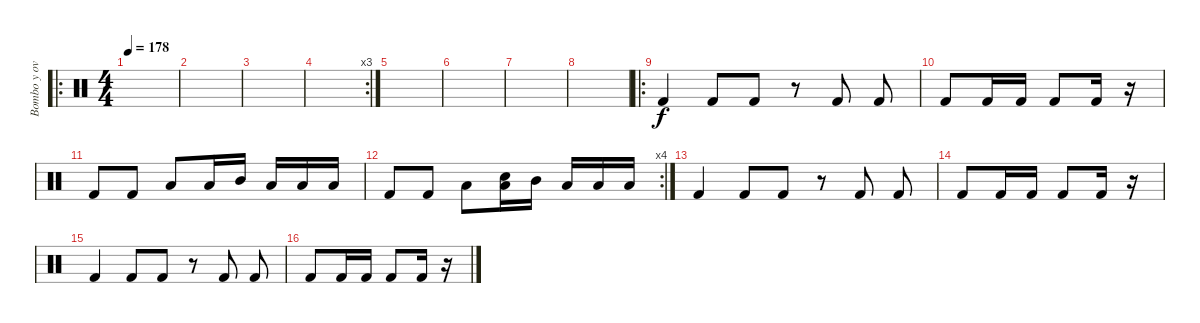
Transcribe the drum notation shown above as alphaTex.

\track ("Bombo y overdubs (bateria)" "Bombo y ov") {instrument percussion}
\staff {score}
\articulation defaults
\ro
\ts (4 4)
\tempo 178
\clef neutral
\ks c
|
|
|
\rc 3
|
|
|
|
|
\ro "Kick (hit) 2".4 "Kick (hit) 2".8 "Kick (hit) 2".8
r.8 "Kick (hit) 2".8 "Kick (hit) 2".8 |
"Kick (hit) 2".8 "Kick (hit) 2".16 "Kick (hit) 2".16 "Kick (hit) 2".8 "Kick (hit) 2".16 r.16 |
"Kick (hit) 2".8 "Kick (hit) 2".8 "Low Tom (hit)".8 "Low Tom (hit)".16 "Mid Tom (hit)".16 "Low Tom (hit)".16 "Low Tom (hit)".16 "Low Tom (hit)".16 |
\rc 4 "Kick (hit) 2".8 "Kick (hit) 2".8 "Low Tom (hit)".8
("Low Tom (hit)" "Snare (hit)").16 "Mid Tom (hit)".16 "Low Tom (hit)".16 "Low Tom (hit)".16 "Low Tom (hit)".16 |
"Kick (hit) 2".4 "Kick (hit) 2".8 "Kick (hit) 2".8 r.8 "Kick (hit) 2".8 "Kick (hit) 2".8 |
"Kick (hit) 2".8 "Kick (hit) 2".16 "Kick (hit) 2".16 "Kick (hit) 2".8 "Kick (hit) 2".16 r.16 |
"Kick (hit) 2".4 "Kick (hit) 2".8 "Kick (hit) 2".8 r.8 "Kick (hit) 2".8 "Kick (hit) 2".8 |
"Kick (hit) 2".8 "Kick (hit) 2".16 "Kick (hit) 2".16 "Kick (hit) 2".8 "Kick (hit) 2".16 r.16
